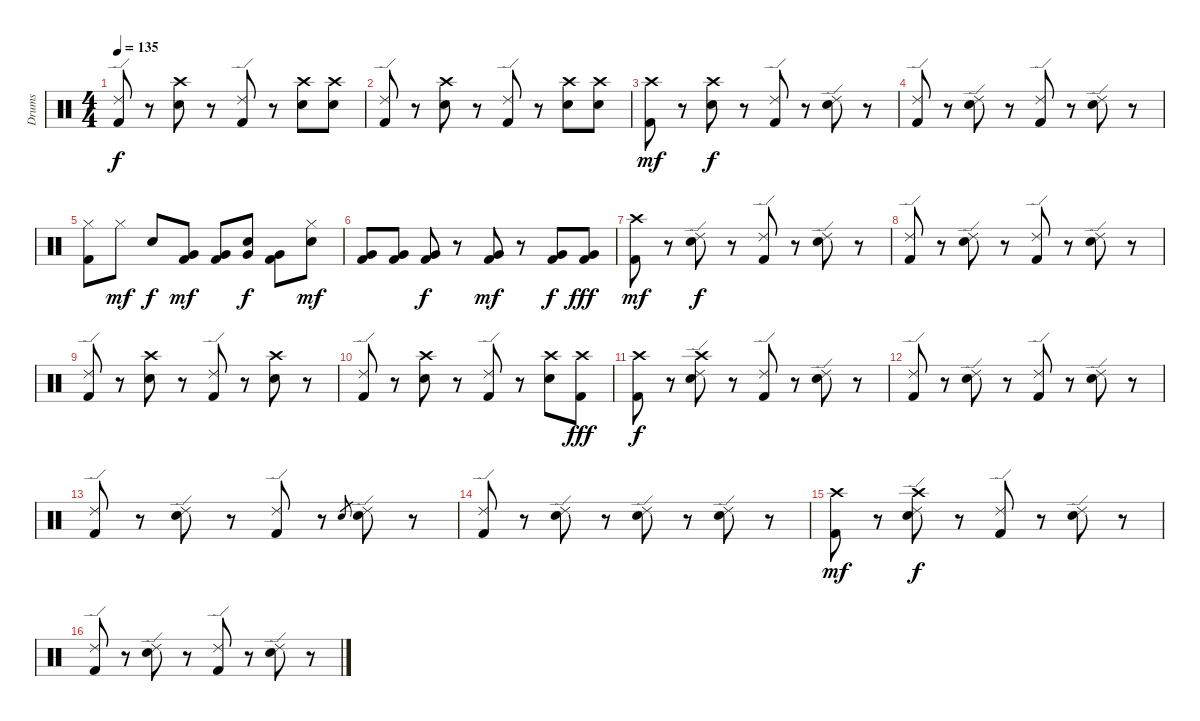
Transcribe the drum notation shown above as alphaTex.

\track ("Drums" "Drums") {instrument percussion}
\staff {score}
\articulation defaults
\ts (4 4)
\tempo 135
\clef neutral
\ks c
("Ride (edge) 2" "Kick (hit) 2").8{dy f} r.8 ("Crash high (hit)" "Snare (hit) 2").8 r.8 ("Ride (edge) 2" "Kick (hit) 2").8 r.8 ("Crash high (hit)" "Snare (hit) 2").8 ("Crash high (hit)" "Snare (hit) 2").8 |
("Ride (edge) 2" "Kick (hit) 2").8 r.8 ("Crash high (hit)" "Snare (hit) 2").8 r.8 ("Ride (edge) 2" "Kick (hit) 2").8 r.8 ("Crash high (hit)" "Snare (hit) 2").8 ("Crash high (hit)" "Snare (hit) 2").8 |
("Crash high (hit)" "Kick (hit) 2").8{dy mf} r.8 ("Crash high (hit)" "Snare (hit) 2").8{dy f} r.8 ("Ride (edge) 2" "Kick (hit) 2").8 r.8 ("Ride (edge) 2" "Snare (hit) 2").8 r.8 |
("Ride (edge) 2" "Kick (hit) 2").8 r.8 ("Ride (edge) 2" "Snare (hit) 2").8 r.8 ("Ride (edge) 2" "Kick (hit) 2").8 r.8 ("Ride (edge) 2" "Snare (hit) 2").8 r.8 |
("Hi-Hat (closed)" "Kick (hit) 2").8 "Hi-Hat (closed)".8{dy mf} "Snare (hit) 2".8{dy f} ("Very Low Tom (hit)" "Kick (hit) 2").8{dy mf} ("Very Low Tom (hit)" "Kick (hit) 2").8 ("Snare (hit) 2" "Very Low Tom (hit)").8{dy f} ("Very Low Tom (hit)" "Kick (hit) 2").8 ("Hi-Hat (closed)" "Snare (hit) 2").8{dy mf} |
("Very Low Tom (hit)" "Kick (hit) 2").8 ("Very Low Tom (hit)" "Kick (hit) 2").8 ("Very Low Tom (hit)" "Kick (hit) 2").8{dy f} r.8 ("Very Low Tom (hit)" "Kick (hit) 2").8{dy mf} r.8 ("Very Low Tom (hit)" "Kick (hit) 2").8{dy f} ("Very Low Tom (hit)" "Kick (hit) 2").8{dy fff} |
("Crash high (hit)" "Kick (hit) 2").8{dy mf} r.8 ("Ride (edge) 2" "Snare (hit) 2").8{dy f} r.8 ("Ride (edge) 2" "Kick (hit) 2").8 r.8 ("Ride (edge) 2" "Snare (hit) 2").8 r.8 |
("Ride (edge) 2" "Kick (hit) 2").8 r.8 ("Ride (edge) 2" "Snare (hit) 2").8 r.8 ("Ride (edge) 2" "Kick (hit) 2").8 r.8 ("Ride (edge) 2" "Snare (hit) 2").8 r.8 |
("Ride (edge) 2" "Kick (hit) 2").8 r.8 ("Crash high (hit)" "Snare (hit) 2").8 r.8 ("Ride (edge) 2" "Kick (hit) 2").8 r.8 ("Crash high (hit)" "Snare (hit) 2").8 r.8 |
("Ride (edge) 2" "Kick (hit) 2").8 r.8 ("Crash high (hit)" "Snare (hit) 2").8 r.8 ("Ride (edge) 2" "Kick (hit) 2").8 r.8 ("Crash high (hit)" "Snare (hit) 2").8 ("Crash high (hit)" "Kick (hit) 2").8{dy fff} |
("Crash high (hit)" "Kick (hit) 2").8{dy f} r.8 ("Ride (edge) 2" "Crash high (hit)" "Snare (hit) 2").8 r.8 ("Ride (edge) 2" "Kick (hit) 2").8 r.8 ("Ride (edge) 2" "Snare (hit) 2").8 r.8 |
("Ride (edge) 2" "Kick (hit) 2").8 r.8 ("Ride (edge) 2" "Snare (hit) 2").8 r.8 ("Ride (edge) 2" "Kick (hit) 2").8 r.8 ("Ride (edge) 2" "Snare (hit) 2").8 r.8 |
("Ride (edge) 2" "Kick (hit) 2").8 r.8 ("Ride (edge) 2" "Snare (hit) 2").8 r.8 ("Ride (edge) 2" "Kick (hit) 2").8 r.8 "Snare (hit) 2".8{gr} ("Ride (edge) 2" "Snare (hit) 2").8 r.8 |
("Ride (edge) 2" "Kick (hit) 2").8 r.8 ("Ride (edge) 2" "Snare (hit) 2").8 r.8 ("Ride (edge) 2" "Snare (hit) 2").8 r.8 ("Ride (edge) 2" "Snare (hit) 2").8 r.8 |
("Crash high (hit)" "Kick (hit) 2").8{dy mf} r.8 ("Ride (edge) 2" "Crash high (hit)" "Snare (hit) 2").8{dy f} r.8 ("Ride (edge) 2" "Kick (hit) 2").8 r.8 ("Ride (edge) 2" "Snare (hit) 2").8 r.8 |
("Ride (edge) 2" "Kick (hit) 2").8 r.8 ("Ride (edge) 2" "Snare (hit) 2").8 r.8 ("Ride (edge) 2" "Kick (hit) 2").8 r.8 ("Ride (edge) 2" "Snare (hit) 2").8 r.8
